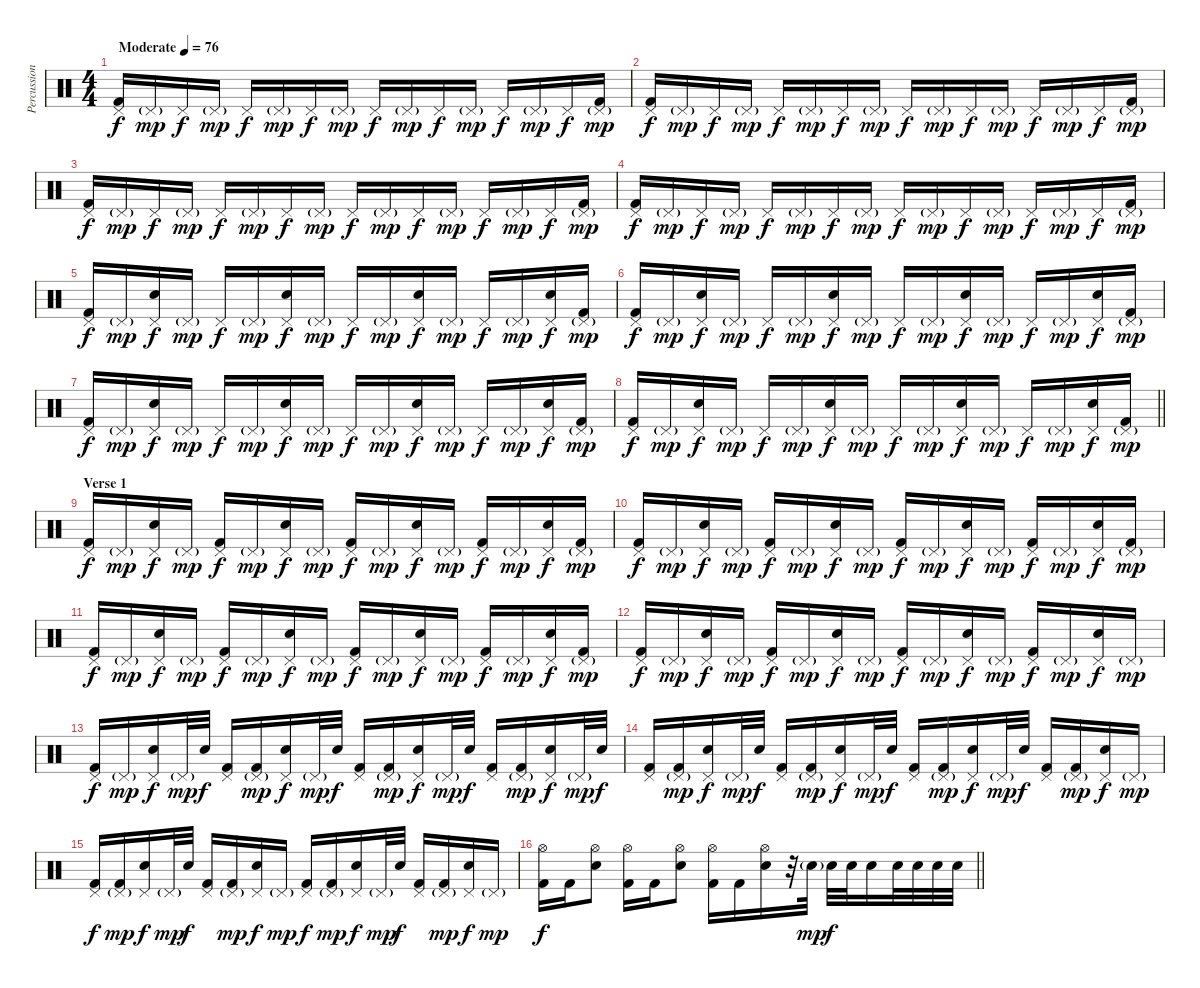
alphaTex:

\track ("Percussion" "Percussion") {instrument percussion}
\staff {score}
\articulation defaults
\ts (4 4)
\tempo (76 "Moderate")
\clef neutral
\ks c
("Pedal Hi-Hat (hit)" "Kick (hit) 2").16{dy f} "Pedal Hi-Hat (hit)"{g}.16{dy mp} "Pedal Hi-Hat (hit)".16{dy f} "Pedal Hi-Hat (hit)"{g}.16{dy mp} "Pedal Hi-Hat (hit)".16{dy f} "Pedal Hi-Hat (hit)"{g}.16{dy mp} "Pedal Hi-Hat (hit)".16{dy f} "Pedal Hi-Hat (hit)"{g}.16{dy mp} "Pedal Hi-Hat (hit)".16{dy f} "Pedal Hi-Hat (hit)"{g}.16{dy mp} "Pedal Hi-Hat (hit)".16{dy f} "Pedal Hi-Hat (hit)"{g}.16{dy mp} "Pedal Hi-Hat (hit)".16{dy f} "Pedal Hi-Hat (hit)"{g}.16{dy mp} "Pedal Hi-Hat (hit)".16{dy f} ("Pedal Hi-Hat (hit)"{g} "Kick (hit) 2").16{dy mp} |
("Pedal Hi-Hat (hit)" "Kick (hit) 2").16{dy f} "Pedal Hi-Hat (hit)"{g}.16{dy mp} "Pedal Hi-Hat (hit)".16{dy f} "Pedal Hi-Hat (hit)"{g}.16{dy mp} "Pedal Hi-Hat (hit)".16{dy f} "Pedal Hi-Hat (hit)"{g}.16{dy mp} "Pedal Hi-Hat (hit)".16{dy f} "Pedal Hi-Hat (hit)"{g}.16{dy mp} "Pedal Hi-Hat (hit)".16{dy f} "Pedal Hi-Hat (hit)"{g}.16{dy mp} "Pedal Hi-Hat (hit)".16{dy f} "Pedal Hi-Hat (hit)"{g}.16{dy mp} "Pedal Hi-Hat (hit)".16{dy f} "Pedal Hi-Hat (hit)"{g}.16{dy mp} "Pedal Hi-Hat (hit)".16{dy f} ("Pedal Hi-Hat (hit)"{g} "Kick (hit) 2").16{dy mp} |
("Pedal Hi-Hat (hit)" "Kick (hit) 2").16{dy f} "Pedal Hi-Hat (hit)"{g}.16{dy mp} "Pedal Hi-Hat (hit)".16{dy f} "Pedal Hi-Hat (hit)"{g}.16{dy mp} "Pedal Hi-Hat (hit)".16{dy f} "Pedal Hi-Hat (hit)"{g}.16{dy mp} "Pedal Hi-Hat (hit)".16{dy f} "Pedal Hi-Hat (hit)"{g}.16{dy mp} "Pedal Hi-Hat (hit)".16{dy f} "Pedal Hi-Hat (hit)"{g}.16{dy mp} "Pedal Hi-Hat (hit)".16{dy f} "Pedal Hi-Hat (hit)"{g}.16{dy mp} "Pedal Hi-Hat (hit)".16{dy f} "Pedal Hi-Hat (hit)"{g}.16{dy mp} "Pedal Hi-Hat (hit)".16{dy f} ("Pedal Hi-Hat (hit)"{g} "Kick (hit) 2").16{dy mp} |
("Pedal Hi-Hat (hit)" "Kick (hit) 2").16{dy f} "Pedal Hi-Hat (hit)"{g}.16{dy mp} "Pedal Hi-Hat (hit)".16{dy f} "Pedal Hi-Hat (hit)"{g}.16{dy mp} "Pedal Hi-Hat (hit)".16{dy f} "Pedal Hi-Hat (hit)"{g}.16{dy mp} "Pedal Hi-Hat (hit)".16{dy f} "Pedal Hi-Hat (hit)"{g}.16{dy mp} "Pedal Hi-Hat (hit)".16{dy f} "Pedal Hi-Hat (hit)"{g}.16{dy mp} "Pedal Hi-Hat (hit)".16{dy f} "Pedal Hi-Hat (hit)"{g}.16{dy mp} "Pedal Hi-Hat (hit)".16{dy f} "Pedal Hi-Hat (hit)"{g}.16{dy mp} "Pedal Hi-Hat (hit)".16{dy f} ("Pedal Hi-Hat (hit)"{g} "Kick (hit) 2").16{dy mp} |
("Pedal Hi-Hat (hit)" "Kick (hit) 2").16{dy f} "Pedal Hi-Hat (hit)"{g}.16{dy mp} ("Pedal Hi-Hat (hit)" "Electric Snare (hit)").16{dy f} "Pedal Hi-Hat (hit)"{g}.16{dy mp} "Pedal Hi-Hat (hit)".16{dy f} "Pedal Hi-Hat (hit)"{g}.16{dy mp} ("Pedal Hi-Hat (hit)" "Electric Snare (hit)").16{dy f} "Pedal Hi-Hat (hit)"{g}.16{dy mp} "Pedal Hi-Hat (hit)".16{dy f} "Pedal Hi-Hat (hit)"{g}.16{dy mp} ("Pedal Hi-Hat (hit)" "Electric Snare (hit)").16{dy f} "Pedal Hi-Hat (hit)"{g}.16{dy mp} "Pedal Hi-Hat (hit)".16{dy f} "Pedal Hi-Hat (hit)"{g}.16{dy mp} ("Pedal Hi-Hat (hit)" "Electric Snare (hit)").16{dy f} ("Pedal Hi-Hat (hit)"{g} "Kick (hit) 2").16{dy mp} |
("Pedal Hi-Hat (hit)" "Kick (hit) 2").16{dy f} "Pedal Hi-Hat (hit)"{g}.16{dy mp} ("Pedal Hi-Hat (hit)" "Electric Snare (hit)").16{dy f} "Pedal Hi-Hat (hit)"{g}.16{dy mp} "Pedal Hi-Hat (hit)".16{dy f} "Pedal Hi-Hat (hit)"{g}.16{dy mp} ("Pedal Hi-Hat (hit)" "Electric Snare (hit)").16{dy f} "Pedal Hi-Hat (hit)"{g}.16{dy mp} "Pedal Hi-Hat (hit)".16{dy f} "Pedal Hi-Hat (hit)"{g}.16{dy mp} ("Pedal Hi-Hat (hit)" "Electric Snare (hit)").16{dy f} "Pedal Hi-Hat (hit)"{g}.16{dy mp} "Pedal Hi-Hat (hit)".16{dy f} "Pedal Hi-Hat (hit)"{g}.16{dy mp} ("Pedal Hi-Hat (hit)" "Electric Snare (hit)").16{dy f} ("Pedal Hi-Hat (hit)"{g} "Kick (hit) 2").16{dy mp} |
("Pedal Hi-Hat (hit)" "Kick (hit) 2").16{dy f} "Pedal Hi-Hat (hit)"{g}.16{dy mp} ("Pedal Hi-Hat (hit)" "Electric Snare (hit)").16{dy f} "Pedal Hi-Hat (hit)"{g}.16{dy mp} "Pedal Hi-Hat (hit)".16{dy f} "Pedal Hi-Hat (hit)"{g}.16{dy mp} ("Pedal Hi-Hat (hit)" "Electric Snare (hit)").16{dy f} "Pedal Hi-Hat (hit)"{g}.16{dy mp} "Pedal Hi-Hat (hit)".16{dy f} "Pedal Hi-Hat (hit)"{g}.16{dy mp} ("Pedal Hi-Hat (hit)" "Electric Snare (hit)").16{dy f} "Pedal Hi-Hat (hit)"{g}.16{dy mp} "Pedal Hi-Hat (hit)".16{dy f} "Pedal Hi-Hat (hit)"{g}.16{dy mp} ("Pedal Hi-Hat (hit)" "Electric Snare (hit)").16{dy f} ("Pedal Hi-Hat (hit)"{g} "Kick (hit) 2").16{dy mp} |
\barLineRight lightlight
("Pedal Hi-Hat (hit)" "Kick (hit) 2").16{dy f} "Pedal Hi-Hat (hit)"{g}.16{dy mp} ("Pedal Hi-Hat (hit)" "Electric Snare (hit)").16{dy f} "Pedal Hi-Hat (hit)"{g}.16{dy mp} "Pedal Hi-Hat (hit)".16{dy f} "Pedal Hi-Hat (hit)"{g}.16{dy mp} ("Pedal Hi-Hat (hit)" "Electric Snare (hit)").16{dy f} "Pedal Hi-Hat (hit)"{g}.16{dy mp} "Pedal Hi-Hat (hit)".16{dy f} "Pedal Hi-Hat (hit)"{g}.16{dy mp} ("Pedal Hi-Hat (hit)" "Electric Snare (hit)").16{dy f} "Pedal Hi-Hat (hit)"{g}.16{dy mp} "Pedal Hi-Hat (hit)".16{dy f} "Pedal Hi-Hat (hit)"{g}.16{dy mp} ("Pedal Hi-Hat (hit)" "Electric Snare (hit)").16{dy f} ("Pedal Hi-Hat (hit)"{g} "Kick (hit) 2").16{dy mp} |
\section ("" "Verse 1")
("Pedal Hi-Hat (hit)" "Kick (hit) 2").16{dy f} "Pedal Hi-Hat (hit)"{g}.16{dy mp} ("Pedal Hi-Hat (hit)" "Electric Snare (hit)").16{dy f} "Pedal Hi-Hat (hit)"{g}.16{dy mp} ("Pedal Hi-Hat (hit)" "Kick (hit) 2").16{dy f} "Pedal Hi-Hat (hit)"{g}.16{dy mp} ("Pedal Hi-Hat (hit)" "Electric Snare (hit)").16{dy f} "Pedal Hi-Hat (hit)"{g}.16{dy mp} ("Pedal Hi-Hat (hit)" "Kick (hit) 2").16{dy f} "Pedal Hi-Hat (hit)"{g}.16{dy mp} ("Pedal Hi-Hat (hit)" "Electric Snare (hit)").16{dy f} "Pedal Hi-Hat (hit)"{g}.16{dy mp} ("Pedal Hi-Hat (hit)" "Kick (hit) 2").16{dy f} "Pedal Hi-Hat (hit)"{g}.16{dy mp} ("Pedal Hi-Hat (hit)" "Electric Snare (hit)").16{dy f} ("Pedal Hi-Hat (hit)"{g} "Kick (hit) 2").16{dy mp} |
("Pedal Hi-Hat (hit)" "Kick (hit) 2").16{dy f} "Pedal Hi-Hat (hit)"{g}.16{dy mp} ("Pedal Hi-Hat (hit)" "Electric Snare (hit)").16{dy f} "Pedal Hi-Hat (hit)"{g}.16{dy mp} ("Pedal Hi-Hat (hit)" "Kick (hit) 2").16{dy f} "Pedal Hi-Hat (hit)"{g}.16{dy mp} ("Pedal Hi-Hat (hit)" "Electric Snare (hit)").16{dy f} "Pedal Hi-Hat (hit)"{g}.16{dy mp} ("Pedal Hi-Hat (hit)" "Kick (hit) 2").16{dy f} "Pedal Hi-Hat (hit)"{g}.16{dy mp} ("Pedal Hi-Hat (hit)" "Electric Snare (hit)").16{dy f} "Pedal Hi-Hat (hit)"{g}.16{dy mp} ("Pedal Hi-Hat (hit)" "Kick (hit) 2").16{dy f} "Pedal Hi-Hat (hit)"{g}.16{dy mp} ("Pedal Hi-Hat (hit)" "Electric Snare (hit)").16{dy f} ("Pedal Hi-Hat (hit)"{g} "Kick (hit) 2").16{dy mp} |
("Pedal Hi-Hat (hit)" "Kick (hit) 2").16{dy f} "Pedal Hi-Hat (hit)"{g}.16{dy mp} ("Pedal Hi-Hat (hit)" "Electric Snare (hit)").16{dy f} "Pedal Hi-Hat (hit)"{g}.16{dy mp} ("Pedal Hi-Hat (hit)" "Kick (hit) 2").16{dy f} "Pedal Hi-Hat (hit)"{g}.16{dy mp} ("Pedal Hi-Hat (hit)" "Electric Snare (hit)").16{dy f} "Pedal Hi-Hat (hit)"{g}.16{dy mp} ("Pedal Hi-Hat (hit)" "Kick (hit) 2").16{dy f} "Pedal Hi-Hat (hit)"{g}.16{dy mp} ("Pedal Hi-Hat (hit)" "Electric Snare (hit)").16{dy f} "Pedal Hi-Hat (hit)"{g}.16{dy mp} ("Pedal Hi-Hat (hit)" "Kick (hit) 2").16{dy f} "Pedal Hi-Hat (hit)"{g}.16{dy mp} ("Pedal Hi-Hat (hit)" "Electric Snare (hit)").16{dy f} ("Pedal Hi-Hat (hit)"{g} "Kick (hit) 2").16{dy mp} |
("Pedal Hi-Hat (hit)" "Kick (hit) 2").16{dy f} "Pedal Hi-Hat (hit)"{g}.16{dy mp} ("Pedal Hi-Hat (hit)" "Electric Snare (hit)").16{dy f} "Pedal Hi-Hat (hit)"{g}.16{dy mp} ("Pedal Hi-Hat (hit)" "Kick (hit) 2").16{dy f} "Pedal Hi-Hat (hit)"{g}.16{dy mp} ("Pedal Hi-Hat (hit)" "Electric Snare (hit)").16{dy f} "Pedal Hi-Hat (hit)"{g}.16{dy mp} ("Pedal Hi-Hat (hit)" "Kick (hit) 2").16{dy f} "Pedal Hi-Hat (hit)"{g}.16{dy mp} ("Pedal Hi-Hat (hit)" "Electric Snare (hit)").16{dy f} "Pedal Hi-Hat (hit)"{g}.16{dy mp} ("Pedal Hi-Hat (hit)" "Kick (hit) 2").16{dy f} "Pedal Hi-Hat (hit)"{g}.16{dy mp} ("Pedal Hi-Hat (hit)" "Electric Snare (hit)").16{dy f} "Pedal Hi-Hat (hit)"{g}.16{dy mp} |
("Pedal Hi-Hat (hit)" "Kick (hit) 2").16{dy f} "Pedal Hi-Hat (hit)"{g}.16{dy mp} ("Pedal Hi-Hat (hit)" "Electric Snare (hit)").16{dy f} "Pedal Hi-Hat (hit)"{g}.32{dy mp} "Electric Snare (hit)".32{dy f} ("Pedal Hi-Hat (hit)" "Kick (hit) 2").16 ("Pedal Hi-Hat (hit)"{g} "Kick (hit) 2").16{dy mp} ("Pedal Hi-Hat (hit)" "Electric Snare (hit)").16{dy f} "Pedal Hi-Hat (hit)"{g}.32{dy mp} "Electric Snare (hit)".32{dy f} ("Pedal Hi-Hat (hit)" "Kick (hit) 2").16 ("Pedal Hi-Hat (hit)"{g} "Kick (hit) 2").16{dy mp} ("Pedal Hi-Hat (hit)" "Electric Snare (hit)").16{dy f} "Pedal Hi-Hat (hit)"{g}.32{dy mp} "Electric Snare (hit)".32{dy f} ("Pedal Hi-Hat (hit)" "Kick (hit) 2").16 ("Pedal Hi-Hat (hit)"{g} "Kick (hit) 2").16{dy mp} ("Pedal Hi-Hat (hit)" "Electric Snare (hit)").16{dy f} "Pedal Hi-Hat (hit)"{g}.32{dy mp} "Electric Snare (hit)".32{dy f} |
("Pedal Hi-Hat (hit)" "Kick (hit) 2").16 ("Pedal Hi-Hat (hit)"{g} "Kick (hit) 2").16{dy mp} ("Pedal Hi-Hat (hit)" "Electric Snare (hit)").16{dy f} "Pedal Hi-Hat (hit)"{g}.32{dy mp} "Electric Snare (hit)".32{dy f} ("Pedal Hi-Hat (hit)" "Kick (hit) 2").16 ("Pedal Hi-Hat (hit)"{g} "Kick (hit) 2").16{dy mp} ("Pedal Hi-Hat (hit)" "Electric Snare (hit)").16{dy f} "Pedal Hi-Hat (hit)"{g}.32{dy mp} "Electric Snare (hit)".32{dy f} ("Pedal Hi-Hat (hit)" "Kick (hit) 2").16 ("Pedal Hi-Hat (hit)"{g} "Kick (hit) 2").16{dy mp} ("Pedal Hi-Hat (hit)" "Electric Snare (hit)").16{dy f} "Pedal Hi-Hat (hit)"{g}.32{dy mp} "Electric Snare (hit)".32{dy f} ("Pedal Hi-Hat (hit)" "Kick (hit) 2").16 ("Pedal Hi-Hat (hit)"{g} "Kick (hit) 2").16{dy mp} ("Pedal Hi-Hat (hit)" "Electric Snare (hit)").16{dy f} "Pedal Hi-Hat (hit)"{g}.16{dy mp} |
("Pedal Hi-Hat (hit)" "Kick (hit) 2").16{dy f} ("Pedal Hi-Hat (hit)"{g} "Kick (hit) 2").16{dy mp} ("Pedal Hi-Hat (hit)" "Electric Snare (hit)").16{dy f} "Pedal Hi-Hat (hit)"{g}.32{dy mp} "Electric Snare (hit)".32{dy f} ("Pedal Hi-Hat (hit)" "Kick (hit) 2").16 ("Pedal Hi-Hat (hit)"{g} "Kick (hit) 2").16{dy mp} ("Pedal Hi-Hat (hit)" "Electric Snare (hit)").16{dy f} "Pedal Hi-Hat (hit)"{g}.16{dy mp} ("Pedal Hi-Hat (hit)" "Kick (hit) 2").16{dy f} ("Pedal Hi-Hat (hit)"{g} "Kick (hit) 2").16{dy mp} ("Pedal Hi-Hat (hit)" "Electric Snare (hit)").16{dy f} "Pedal Hi-Hat (hit)"{g}.32{dy mp} "Electric Snare (hit)".32{dy f} ("Pedal Hi-Hat (hit)" "Kick (hit) 2").16 ("Pedal Hi-Hat (hit)"{g} "Kick (hit) 2").16{dy mp} ("Pedal Hi-Hat (hit)" "Electric Snare (hit)").16{dy f} "Pedal Hi-Hat (hit)"{g}.16{dy mp} |
\barLineRight lightlight
("Hi-Hat (open)" "Kick (hit) 2").16{dy f} "Kick (hit) 2".16 ("Hi-Hat (open)" "Electric Snare (hit)").8 ("Hi-Hat (open)" "Kick (hit) 2").16 "Kick (hit) 2".16 ("Hi-Hat (open)" "Electric Snare (hit)").8 ("Hi-Hat (open)" "Kick (hit) 2").16 "Kick (hit) 2".16 ("Hi-Hat (open)" "Electric Snare (hit)").16 r.32 "Electric Snare (hit)"{g}.32{dy mp} "Electric Snare (hit)".32{dy f} "Electric Snare (hit)".32 "Electric Snare (hit)".16 "Electric Snare (hit)".32 "Electric Snare (hit)".32 "Electric Snare (hit)".32 "Electric Snare (hit)".32
